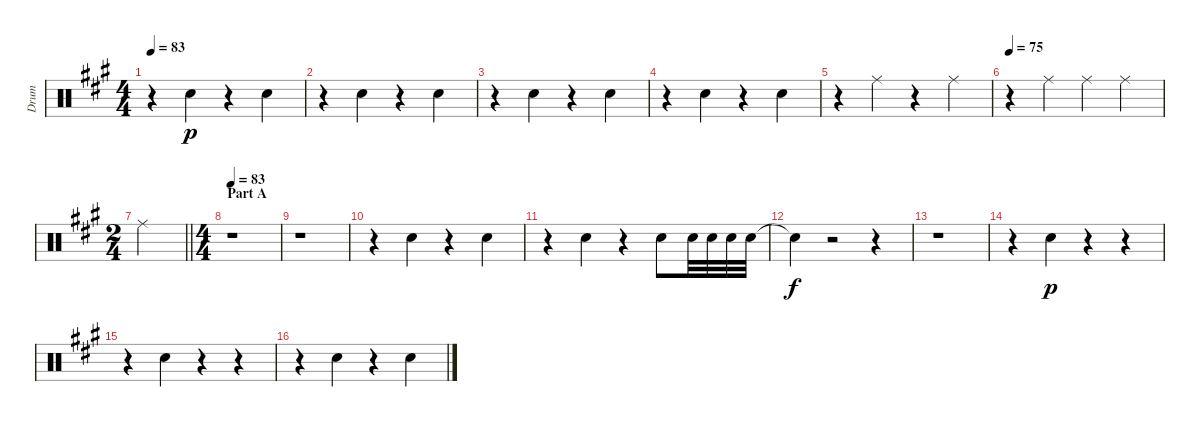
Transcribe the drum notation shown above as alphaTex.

\track ("Drum" "Drum") {instrument percussion}
\staff {score}
\articulation defaults
\ts (4 4)
\tempo 83
\clef neutral
\ks a
r.4{dy p} "Snare (hit) 2".4 r.4 "Snare (hit) 2".4 |
r.4 "Snare (hit) 2".4 r.4 "Snare (hit) 2".4 |
r.4 "Snare (hit) 2".4 r.4 "Snare (hit) 2".4 |
r.4 "Snare (hit) 2".4 r.4 "Snare (hit) 2".4 |
r.4 "Ride (middle)".4 r.4 "Ride (middle)".4 |
\tempo 75
r.4 "Ride (middle)".4 "Ride (middle)".4 "Ride (middle)".4 |
\ts (2 4)
\barLineRight lightlight "Ride (middle)".2
|
\ts (4 4)
\section ("" "Part A")
\tempo 83
r.1 |
r.1 |
r.4 "Snare (hit) 2".4 r.4 "Snare (hit) 2".4 |
r.4 "Snare (hit) 2".4 r.4 "Snare (hit) 2".8 "Snare (hit) 2".32 "Snare (hit) 2".32 "Snare (hit) 2".32 "Snare (hit) 2".32 |
"Snare (hit)"{t}.4{dy f} r.2 r.4 |
r.1 |
r.4 "Snare (hit) 2".4{dy p} r.4 r.4 |
r.4 "Snare (hit) 2".4 r.4 r.4 |
r.4 "Snare (hit) 2".4 r.4 "Snare (hit) 2".4
